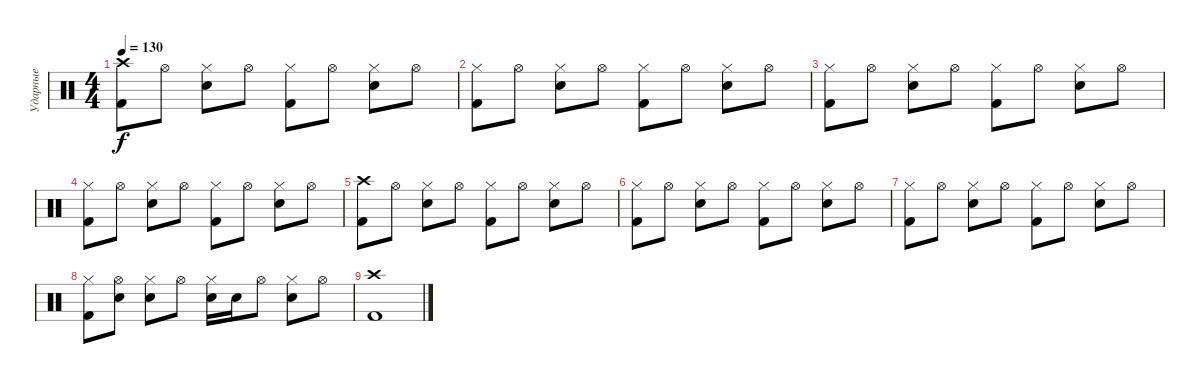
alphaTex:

\track ("Ударные" "Ударные") {instrument percussion}
\staff {score}
\articulation defaults
\ts (4 4)
\tempo 130
\clef neutral
\ks c
("Crash high (hit)" "Kick (hit) 2").8{dy f} "Hi-Hat (open)".8 ("Hi-Hat (closed)" "Snare (hit) 2").8 "Hi-Hat (open)".8 ("Hi-Hat (closed)" "Kick (hit) 2").8 "Hi-Hat (open)".8 ("Hi-Hat (closed)" "Snare (hit) 2").8 "Hi-Hat (open)".8 |
("Hi-Hat (closed)" "Kick (hit) 2").8 "Hi-Hat (open)".8 ("Hi-Hat (closed)" "Snare (hit) 2").8 "Hi-Hat (open)".8 ("Hi-Hat (closed)" "Kick (hit) 2").8 "Hi-Hat (open)".8 ("Hi-Hat (closed)" "Snare (hit) 2").8 "Hi-Hat (open)".8 |
("Hi-Hat (closed)" "Kick (hit) 2").8 "Hi-Hat (open)".8 ("Hi-Hat (closed)" "Snare (hit) 2").8 "Hi-Hat (open)".8 ("Hi-Hat (closed)" "Kick (hit) 2").8 "Hi-Hat (open)".8 ("Hi-Hat (closed)" "Snare (hit) 2").8 "Hi-Hat (open)".8 |
("Hi-Hat (closed)" "Kick (hit) 2").8 "Hi-Hat (open)".8 ("Hi-Hat (closed)" "Snare (hit) 2").8 "Hi-Hat (open)".8 ("Hi-Hat (closed)" "Kick (hit) 2").8 "Hi-Hat (open)".8 ("Hi-Hat (closed)" "Snare (hit) 2").8 "Hi-Hat (open)".8 |
("Crash high (hit)" "Kick (hit) 2").8 "Hi-Hat (open)".8 ("Hi-Hat (closed)" "Snare (hit) 2").8 "Hi-Hat (open)".8 ("Hi-Hat (closed)" "Kick (hit) 2").8 "Hi-Hat (open)".8 ("Hi-Hat (closed)" "Snare (hit) 2").8 "Hi-Hat (open)".8 |
("Hi-Hat (closed)" "Kick (hit) 2").8 "Hi-Hat (open)".8 ("Hi-Hat (closed)" "Snare (hit) 2").8 "Hi-Hat (open)".8 ("Hi-Hat (closed)" "Kick (hit) 2").8 "Hi-Hat (open)".8 ("Hi-Hat (closed)" "Snare (hit) 2").8 "Hi-Hat (open)".8 |
("Hi-Hat (closed)" "Kick (hit) 2").8 "Hi-Hat (open)".8 ("Hi-Hat (closed)" "Snare (hit) 2").8 "Hi-Hat (open)".8 ("Hi-Hat (closed)" "Kick (hit) 2").8 "Hi-Hat (open)".8 ("Hi-Hat (closed)" "Snare (hit) 2").8 "Hi-Hat (open)".8 |
("Hi-Hat (closed)" "Kick (hit) 2").8 ("Hi-Hat (open)" "Snare (hit) 2").8 ("Hi-Hat (closed)" "Snare (hit) 2").8 "Hi-Hat (open)".8 ("Hi-Hat (closed)" "Snare (hit) 2").16 "Snare (hit) 2".16 "Hi-Hat (open)".8 ("Hi-Hat (closed)" "Snare (hit) 2").8 "Hi-Hat (open)".8 |
("Crash high (hit)" "Kick (hit) 2").1
